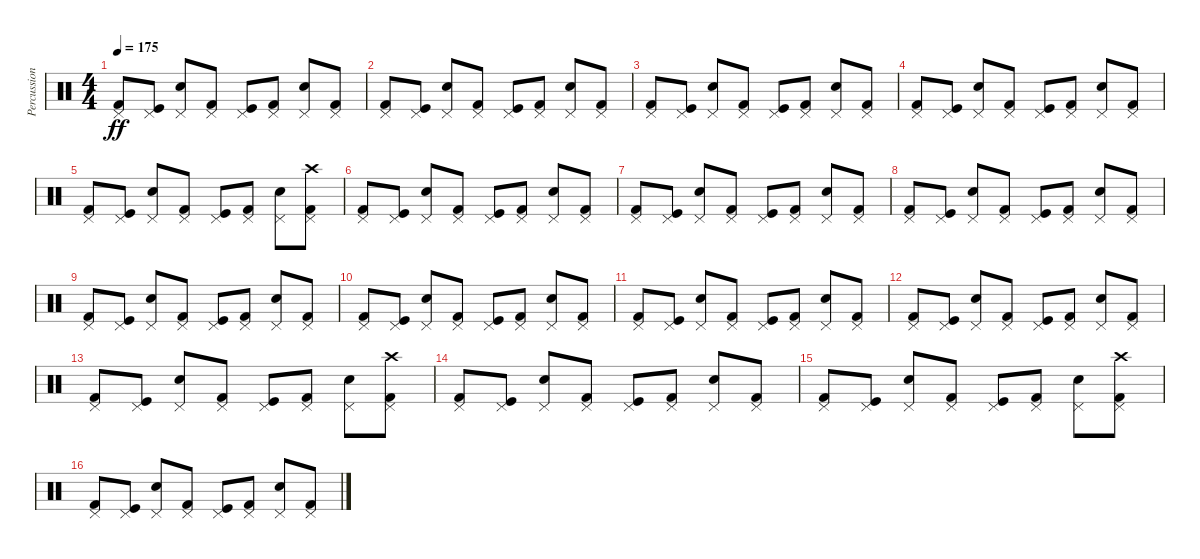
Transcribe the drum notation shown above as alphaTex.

\track ("Percussion (Karlo Žuliæ)" "Percussion") {instrument percussion}
\staff {score}
\articulation defaults
\ts (4 4)
\tempo 175
\clef neutral
\ks c
("Pedal Hi-Hat (hit)" "Kick (hit) 2").8{dy ff} ("Pedal Hi-Hat (hit)" "Kick (hit)").8 ("Pedal Hi-Hat (hit)" "Snare (hit) 2").8 ("Pedal Hi-Hat (hit)" "Kick (hit) 2").8 ("Pedal Hi-Hat (hit)" "Kick (hit)").8 ("Pedal Hi-Hat (hit)" "Kick (hit) 2").8 ("Pedal Hi-Hat (hit)" "Snare (hit) 2").8 ("Pedal Hi-Hat (hit)" "Kick (hit) 2").8 |
("Pedal Hi-Hat (hit)" "Kick (hit) 2").8 ("Pedal Hi-Hat (hit)" "Kick (hit)").8 ("Pedal Hi-Hat (hit)" "Snare (hit) 2").8 ("Pedal Hi-Hat (hit)" "Kick (hit) 2").8 ("Pedal Hi-Hat (hit)" "Kick (hit)").8 ("Pedal Hi-Hat (hit)" "Kick (hit) 2").8 ("Pedal Hi-Hat (hit)" "Snare (hit) 2").8 ("Pedal Hi-Hat (hit)" "Kick (hit) 2").8 |
("Pedal Hi-Hat (hit)" "Kick (hit) 2").8 ("Pedal Hi-Hat (hit)" "Kick (hit)").8 ("Pedal Hi-Hat (hit)" "Snare (hit) 2").8 ("Pedal Hi-Hat (hit)" "Kick (hit) 2").8 ("Pedal Hi-Hat (hit)" "Kick (hit)").8 ("Pedal Hi-Hat (hit)" "Kick (hit) 2").8 ("Pedal Hi-Hat (hit)" "Snare (hit) 2").8 ("Pedal Hi-Hat (hit)" "Kick (hit) 2").8 |
("Pedal Hi-Hat (hit)" "Kick (hit) 2").8 ("Pedal Hi-Hat (hit)" "Kick (hit)").8 ("Pedal Hi-Hat (hit)" "Snare (hit) 2").8 ("Pedal Hi-Hat (hit)" "Kick (hit) 2").8 ("Pedal Hi-Hat (hit)" "Kick (hit)").8 ("Pedal Hi-Hat (hit)" "Kick (hit) 2").8 ("Pedal Hi-Hat (hit)" "Snare (hit) 2").8 ("Pedal Hi-Hat (hit)" "Kick (hit) 2").8 |
("Pedal Hi-Hat (hit)" "Kick (hit) 2").8 ("Pedal Hi-Hat (hit)" "Kick (hit)").8 ("Pedal Hi-Hat (hit)" "Snare (hit) 2").8 ("Pedal Hi-Hat (hit)" "Kick (hit) 2").8 ("Pedal Hi-Hat (hit)" "Kick (hit)").8 ("Pedal Hi-Hat (hit)" "Kick (hit) 2").8 ("Pedal Hi-Hat (hit)" "Snare (hit) 2").8 ("Pedal Hi-Hat (hit)" "Kick (hit) 2" "Crash high (hit)").8 |
("Pedal Hi-Hat (hit)" "Kick (hit) 2").8 ("Pedal Hi-Hat (hit)" "Kick (hit)").8 ("Pedal Hi-Hat (hit)" "Snare (hit) 2").8 ("Pedal Hi-Hat (hit)" "Kick (hit) 2").8 ("Pedal Hi-Hat (hit)" "Kick (hit)").8 ("Pedal Hi-Hat (hit)" "Kick (hit) 2").8 ("Pedal Hi-Hat (hit)" "Snare (hit) 2").8 ("Pedal Hi-Hat (hit)" "Kick (hit) 2").8 |
("Pedal Hi-Hat (hit)" "Kick (hit) 2").8 ("Pedal Hi-Hat (hit)" "Kick (hit)").8 ("Pedal Hi-Hat (hit)" "Snare (hit) 2").8 ("Pedal Hi-Hat (hit)" "Kick (hit) 2").8 ("Pedal Hi-Hat (hit)" "Kick (hit)").8 ("Pedal Hi-Hat (hit)" "Kick (hit) 2").8 ("Pedal Hi-Hat (hit)" "Snare (hit) 2").8 ("Pedal Hi-Hat (hit)" "Kick (hit) 2").8 |
("Pedal Hi-Hat (hit)" "Kick (hit) 2").8 ("Pedal Hi-Hat (hit)" "Kick (hit)").8 ("Pedal Hi-Hat (hit)" "Snare (hit) 2").8 ("Pedal Hi-Hat (hit)" "Kick (hit) 2").8 ("Pedal Hi-Hat (hit)" "Kick (hit)").8 ("Pedal Hi-Hat (hit)" "Kick (hit) 2").8 ("Pedal Hi-Hat (hit)" "Snare (hit) 2").8 ("Pedal Hi-Hat (hit)" "Kick (hit) 2").8 |
("Pedal Hi-Hat (hit)" "Kick (hit) 2").8 ("Pedal Hi-Hat (hit)" "Kick (hit)").8 ("Pedal Hi-Hat (hit)" "Snare (hit) 2").8 ("Pedal Hi-Hat (hit)" "Kick (hit) 2").8 ("Pedal Hi-Hat (hit)" "Kick (hit)").8 ("Pedal Hi-Hat (hit)" "Kick (hit) 2").8 ("Pedal Hi-Hat (hit)" "Snare (hit) 2").8 ("Pedal Hi-Hat (hit)" "Kick (hit) 2").8 |
("Pedal Hi-Hat (hit)" "Kick (hit) 2").8 ("Pedal Hi-Hat (hit)" "Kick (hit)").8 ("Pedal Hi-Hat (hit)" "Snare (hit) 2").8 ("Pedal Hi-Hat (hit)" "Kick (hit) 2").8 ("Pedal Hi-Hat (hit)" "Kick (hit)").8 ("Pedal Hi-Hat (hit)" "Kick (hit) 2").8 ("Pedal Hi-Hat (hit)" "Snare (hit) 2").8 ("Pedal Hi-Hat (hit)" "Kick (hit) 2").8 |
("Pedal Hi-Hat (hit)" "Kick (hit) 2").8 ("Pedal Hi-Hat (hit)" "Kick (hit)").8 ("Pedal Hi-Hat (hit)" "Snare (hit) 2").8 ("Pedal Hi-Hat (hit)" "Kick (hit) 2").8 ("Pedal Hi-Hat (hit)" "Kick (hit)").8 ("Pedal Hi-Hat (hit)" "Kick (hit) 2").8 ("Pedal Hi-Hat (hit)" "Snare (hit) 2").8 ("Pedal Hi-Hat (hit)" "Kick (hit) 2").8 |
("Pedal Hi-Hat (hit)" "Kick (hit) 2").8 ("Pedal Hi-Hat (hit)" "Kick (hit)").8 ("Pedal Hi-Hat (hit)" "Snare (hit) 2").8 ("Pedal Hi-Hat (hit)" "Kick (hit) 2").8 ("Pedal Hi-Hat (hit)" "Kick (hit)").8 ("Pedal Hi-Hat (hit)" "Kick (hit) 2").8 ("Pedal Hi-Hat (hit)" "Snare (hit) 2").8 ("Pedal Hi-Hat (hit)" "Kick (hit) 2").8 |
("Pedal Hi-Hat (hit)" "Kick (hit) 2").8 ("Pedal Hi-Hat (hit)" "Kick (hit)").8 ("Pedal Hi-Hat (hit)" "Snare (hit) 2").8 ("Pedal Hi-Hat (hit)" "Kick (hit) 2").8 ("Pedal Hi-Hat (hit)" "Kick (hit)").8 ("Pedal Hi-Hat (hit)" "Kick (hit) 2").8 ("Pedal Hi-Hat (hit)" "Snare (hit) 2").8 ("Pedal Hi-Hat (hit)" "Kick (hit) 2" "Crash high (hit)").8 |
("Pedal Hi-Hat (hit)" "Kick (hit) 2").8 ("Pedal Hi-Hat (hit)" "Kick (hit)").8 ("Pedal Hi-Hat (hit)" "Snare (hit) 2").8 ("Pedal Hi-Hat (hit)" "Kick (hit) 2").8 ("Pedal Hi-Hat (hit)" "Kick (hit)").8 ("Pedal Hi-Hat (hit)" "Kick (hit) 2").8 ("Pedal Hi-Hat (hit)" "Snare (hit) 2").8 ("Pedal Hi-Hat (hit)" "Kick (hit) 2").8 |
("Pedal Hi-Hat (hit)" "Kick (hit) 2").8 ("Pedal Hi-Hat (hit)" "Kick (hit)").8 ("Pedal Hi-Hat (hit)" "Snare (hit) 2").8 ("Pedal Hi-Hat (hit)" "Kick (hit) 2").8 ("Pedal Hi-Hat (hit)" "Kick (hit)").8 ("Pedal Hi-Hat (hit)" "Kick (hit) 2").8 ("Pedal Hi-Hat (hit)" "Snare (hit) 2").8 ("Pedal Hi-Hat (hit)" "Kick (hit) 2" "Crash high (hit)").8 |
("Pedal Hi-Hat (hit)" "Kick (hit) 2").8 ("Pedal Hi-Hat (hit)" "Kick (hit)").8 ("Pedal Hi-Hat (hit)" "Snare (hit) 2").8 ("Pedal Hi-Hat (hit)" "Kick (hit) 2").8 ("Pedal Hi-Hat (hit)" "Kick (hit)").8 ("Pedal Hi-Hat (hit)" "Kick (hit) 2").8 ("Pedal Hi-Hat (hit)" "Snare (hit) 2").8 ("Pedal Hi-Hat (hit)" "Kick (hit) 2").8
